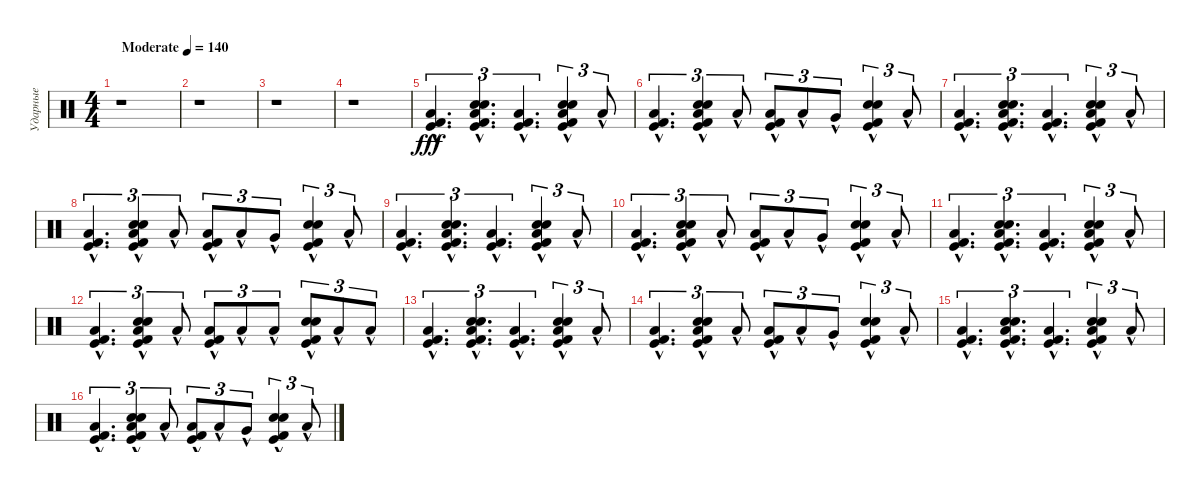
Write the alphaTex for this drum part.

\track ("Ударные" "Ударные") {instrument percussion}
\staff {score}
\articulation defaults
\ts (4 4)
\tempo (140 "Moderate")
\clef neutral
\ks c
r.1{dy fff} |
r.1 |
r.1 |
r.1 |
("Kick (hit)" "Kick (hit) 2" "Low Floor Tom (hit)"{hac}).4{d tu (3 2)} ("Kick (hit)" "Kick (hit) 2" "Snare (hit) 2"{hac} "Electric Snare (hit)"{hac} "Low Floor Tom (hit)"{hac}).4{d tu (3 2)} ("Kick (hit)" "Kick (hit) 2" "Low Floor Tom (hit)"{hac}).4{d tu (3 2)} ("Kick (hit)" "Kick (hit) 2" "Snare (hit) 2"{hac} "Electric Snare (hit)"{hac} "Low Floor Tom (hit)"{hac}).4{tu (3 2)} "Low Floor Tom (hit)"{hac}.8{tu (3 2)} |
("Kick (hit)" "Kick (hit) 2" "Low Floor Tom (hit)"{hac}).4{d tu (3 2)} ("Kick (hit)" "Kick (hit) 2" "Snare (hit) 2"{hac} "Electric Snare (hit)"{hac} "Low Floor Tom (hit)"{hac}).4{tu (3 2)} "Low Floor Tom (hit)"{hac}.8{tu (3 2)} ("Kick (hit)" "Kick (hit) 2" "Low Floor Tom (hit)"{hac}).8{tu (3 2)} "Low Tom (hit)"{hac}.8{tu (3 2)} "Very Low Tom (hit)"{hac}.8{tu (3 2)} ("Kick (hit)" "Kick (hit) 2" "Snare (hit) 2"{hac} "Electric Snare (hit)"{hac}).4{tu (3 2)} "Low Floor Tom (hit)"{hac}.8{tu (3 2)} |
("Kick (hit)" "Kick (hit) 2" "Low Floor Tom (hit)"{hac}).4{d tu (3 2)} ("Kick (hit)" "Kick (hit) 2" "Snare (hit) 2"{hac} "Electric Snare (hit)"{hac} "Low Floor Tom (hit)"{hac}).4{d tu (3 2)} ("Kick (hit)" "Kick (hit) 2" "Low Floor Tom (hit)"{hac}).4{d tu (3 2)} ("Kick (hit)" "Kick (hit) 2" "Snare (hit) 2"{hac} "Electric Snare (hit)"{hac} "Low Floor Tom (hit)"{hac}).4{tu (3 2)} "Low Floor Tom (hit)"{hac}.8{tu (3 2)} |
("Kick (hit)" "Kick (hit) 2" "Low Floor Tom (hit)"{hac}).4{d tu (3 2)} ("Kick (hit)" "Kick (hit) 2" "Snare (hit) 2"{hac} "Electric Snare (hit)"{hac} "Low Floor Tom (hit)"{hac}).4{tu (3 2)} "Low Floor Tom (hit)"{hac}.8{tu (3 2)} ("Kick (hit)" "Kick (hit) 2" "Low Floor Tom (hit)"{hac}).8{tu (3 2)} "Low Tom (hit)"{hac}.8{tu (3 2)} "Very Low Tom (hit)"{hac}.8{tu (3 2)} ("Kick (hit)" "Kick (hit) 2" "Snare (hit) 2"{hac} "Electric Snare (hit)"{hac}).4{tu (3 2)} "Low Floor Tom (hit)"{hac}.8{tu (3 2)} |
("Kick (hit)" "Kick (hit) 2" "Low Floor Tom (hit)"{hac}).4{d tu (3 2)} ("Kick (hit)" "Kick (hit) 2" "Snare (hit) 2"{hac} "Electric Snare (hit)"{hac} "Low Floor Tom (hit)"{hac}).4{d tu (3 2)} ("Kick (hit)" "Kick (hit) 2" "Low Floor Tom (hit)"{hac}).4{d tu (3 2)} ("Kick (hit)" "Kick (hit) 2" "Snare (hit) 2"{hac} "Electric Snare (hit)"{hac} "Low Floor Tom (hit)"{hac}).4{tu (3 2)} "Low Floor Tom (hit)"{hac}.8{tu (3 2)} |
("Kick (hit)" "Kick (hit) 2" "Low Floor Tom (hit)"{hac}).4{d tu (3 2)} ("Kick (hit)" "Kick (hit) 2" "Snare (hit) 2"{hac} "Electric Snare (hit)"{hac} "Low Floor Tom (hit)"{hac}).4{tu (3 2)} "Low Floor Tom (hit)"{hac}.8{tu (3 2)} ("Kick (hit)" "Kick (hit) 2" "Low Floor Tom (hit)"{hac}).8{tu (3 2)} "Low Tom (hit)"{hac}.8{tu (3 2)} "Very Low Tom (hit)"{hac}.8{tu (3 2)} ("Kick (hit)" "Kick (hit) 2" "Snare (hit) 2"{hac} "Electric Snare (hit)"{hac}).4{tu (3 2)} "Low Floor Tom (hit)"{hac}.8{tu (3 2)} |
("Kick (hit)" "Kick (hit) 2" "Low Floor Tom (hit)"{hac}).4{d tu (3 2)} ("Kick (hit)" "Kick (hit) 2" "Snare (hit) 2"{hac} "Electric Snare (hit)"{hac} "Low Floor Tom (hit)"{hac}).4{d tu (3 2)} ("Kick (hit)" "Kick (hit) 2" "Low Floor Tom (hit)"{hac}).4{d tu (3 2)} ("Kick (hit)" "Kick (hit) 2" "Snare (hit) 2"{hac} "Electric Snare (hit)"{hac} "Low Floor Tom (hit)"{hac}).4{tu (3 2)} "Low Floor Tom (hit)"{hac}.8{tu (3 2)} |
("Kick (hit)" "Kick (hit) 2" "Low Floor Tom (hit)"{hac}).4{d tu (3 2)} ("Kick (hit)" "Kick (hit) 2" "Snare (hit) 2"{hac} "Electric Snare (hit)"{hac} "Low Floor Tom (hit)"{hac}).4{tu (3 2)} "Low Floor Tom (hit)"{hac}.8{tu (3 2)} ("Kick (hit)" "Kick (hit) 2" "Low Floor Tom (hit)"{hac}).8{tu (3 2)} "Low Floor Tom (hit)"{hac}.8{tu (3 2)} "Low Floor Tom (hit)"{hac}.8{tu (3 2)} ("Kick (hit)" "Kick (hit) 2" "Snare (hit) 2"{hac} "Electric Snare (hit)"{hac}).8{tu (3 2)} "Low Floor Tom (hit)"{hac}.8{tu (3 2)} "Low Floor Tom (hit)"{hac}.8{tu (3 2)} |
("Kick (hit)" "Kick (hit) 2" "Low Floor Tom (hit)"{hac}).4{d tu (3 2)} ("Kick (hit)" "Kick (hit) 2" "Snare (hit) 2"{hac} "Electric Snare (hit)"{hac} "Low Floor Tom (hit)"{hac}).4{d tu (3 2)} ("Kick (hit)" "Kick (hit) 2" "Low Floor Tom (hit)"{hac}).4{d tu (3 2)} ("Kick (hit)" "Kick (hit) 2" "Snare (hit) 2"{hac} "Electric Snare (hit)"{hac} "Low Floor Tom (hit)"{hac}).4{tu (3 2)} "Low Floor Tom (hit)"{hac}.8{tu (3 2)} |
("Kick (hit)" "Kick (hit) 2" "Low Floor Tom (hit)"{hac}).4{d tu (3 2)} ("Kick (hit)" "Kick (hit) 2" "Snare (hit) 2"{hac} "Electric Snare (hit)"{hac} "Low Floor Tom (hit)"{hac}).4{tu (3 2)} "Low Floor Tom (hit)"{hac}.8{tu (3 2)} ("Kick (hit)" "Kick (hit) 2" "Low Floor Tom (hit)"{hac}).8{tu (3 2)} "Low Tom (hit)"{hac}.8{tu (3 2)} "Very Low Tom (hit)"{hac}.8{tu (3 2)} ("Kick (hit)" "Kick (hit) 2" "Snare (hit) 2"{hac} "Electric Snare (hit)"{hac}).4{tu (3 2)} "Low Floor Tom (hit)"{hac}.8{tu (3 2)} |
("Kick (hit)" "Kick (hit) 2" "Low Floor Tom (hit)"{hac}).4{d tu (3 2)} ("Kick (hit)" "Kick (hit) 2" "Snare (hit) 2"{hac} "Electric Snare (hit)"{hac} "Low Floor Tom (hit)"{hac}).4{d tu (3 2)} ("Kick (hit)" "Kick (hit) 2" "Low Floor Tom (hit)"{hac}).4{d tu (3 2)} ("Kick (hit)" "Kick (hit) 2" "Snare (hit) 2"{hac} "Electric Snare (hit)"{hac} "Low Floor Tom (hit)"{hac}).4{tu (3 2)} "Low Floor Tom (hit)"{hac}.8{tu (3 2)} |
("Kick (hit)" "Kick (hit) 2" "Low Floor Tom (hit)"{hac}).4{d tu (3 2)} ("Kick (hit)" "Kick (hit) 2" "Snare (hit) 2"{hac} "Electric Snare (hit)"{hac} "Low Floor Tom (hit)"{hac}).4{tu (3 2)} "Low Floor Tom (hit)"{hac}.8{tu (3 2)} ("Kick (hit)" "Kick (hit) 2" "Low Floor Tom (hit)"{hac}).8{tu (3 2)} "Low Tom (hit)"{hac}.8{tu (3 2)} "Very Low Tom (hit)"{hac}.8{tu (3 2)} ("Kick (hit)" "Kick (hit) 2" "Snare (hit) 2"{hac} "Electric Snare (hit)"{hac}).4{tu (3 2)} "Low Floor Tom (hit)"{hac}.8{tu (3 2)}
